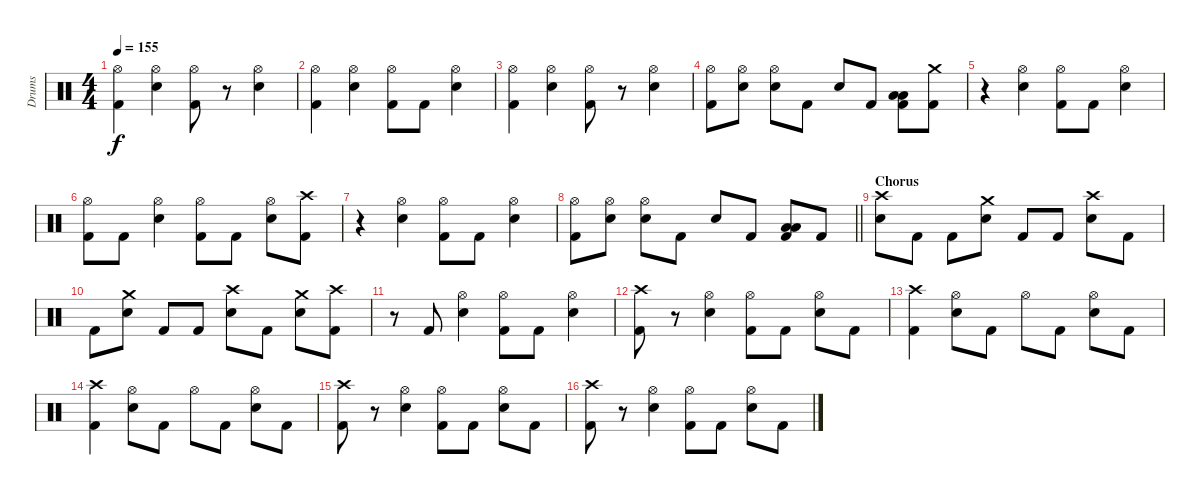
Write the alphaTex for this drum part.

\track ("Drums" "Drums") {instrument percussion}
\staff {score}
\articulation defaults
\ts (4 4)
\tempo 155
\clef neutral
\ks c
("Hi-Hat (open)" "Kick (hit) 2").4{dy f} ("Hi-Hat (open)" "Electric Snare (hit)").4 ("Hi-Hat (open)" "Kick (hit) 2").8 r.8 ("Hi-Hat (open)" "Electric Snare (hit)").4 |
("Hi-Hat (open)" "Kick (hit) 2").4 ("Hi-Hat (open)" "Electric Snare (hit)").4 ("Hi-Hat (open)" "Kick (hit) 2").8 "Kick (hit) 2".8 ("Hi-Hat (open)" "Electric Snare (hit)").4 |
("Hi-Hat (open)" "Kick (hit) 2").4 ("Hi-Hat (open)" "Electric Snare (hit)").4 ("Hi-Hat (open)" "Kick (hit) 2").8 r.8 ("Hi-Hat (open)" "Electric Snare (hit)").4 |
("Hi-Hat (open)" "Kick (hit) 2").8 ("Hi-Hat (open)" "Electric Snare (hit)").8 ("Hi-Hat (open)" "Electric Snare (hit)").8 "Kick (hit) 2".8 "Electric Snare (hit)".8 "Kick (hit) 2".8 ("Low Floor Tom (hit)" "Low Tom (hit)" "Kick (hit) 2").8 ("Crash medium (hit)" "Kick (hit) 2").8 |
r.4 ("Hi-Hat (open)" "Electric Snare (hit)").4 ("Hi-Hat (open)" "Kick (hit) 2").8 "Kick (hit) 2".8 ("Hi-Hat (open)" "Electric Snare (hit)").4 |
("Hi-Hat (open)" "Kick (hit) 2").8 "Kick (hit) 2".8 ("Hi-Hat (open)" "Electric Snare (hit)").4 ("Hi-Hat (open)" "Kick (hit) 2").8 "Kick (hit) 2".8 ("Hi-Hat (open)" "Electric Snare (hit)").8 ("Crash high (hit)" "Kick (hit) 2").8 |
r.4 ("Hi-Hat (open)" "Electric Snare (hit)").4 ("Hi-Hat (open)" "Kick (hit) 2").8 "Kick (hit) 2".8 ("Hi-Hat (open)" "Electric Snare (hit)").4 |
\barLineRight lightlight
("Hi-Hat (open)" "Kick (hit) 2").8 ("Hi-Hat (open)" "Electric Snare (hit)").8 ("Hi-Hat (open)" "Electric Snare (hit)").8 "Kick (hit) 2".8 "Electric Snare (hit)".8 "Kick (hit) 2".8 ("Low Floor Tom (hit)" "Low Tom (hit)" "Kick (hit) 2").8 "Kick (hit) 2".8 |
\section ("" "Chorus")
("Crash high (hit)" "Electric Snare (hit)").8 "Kick (hit) 2".8 "Kick (hit) 2".8 ("Crash medium (hit)" "Electric Snare (hit)").8 "Kick (hit) 2".8 "Kick (hit) 2".8 ("Crash high (hit)" "Electric Snare (hit)").8 "Kick (hit) 2".8 |
"Kick (hit) 2".8 ("Crash medium (hit)" "Electric Snare (hit)").8 "Kick (hit) 2".8 "Kick (hit) 2".8 ("Crash high (hit)" "Electric Snare (hit)").8 "Kick (hit) 2".8 ("Crash medium (hit)" "Electric Snare (hit)").8 ("Kick (hit) 2" "Crash high (hit)").8 |
r.8 "Kick (hit) 2".8 ("Hi-Hat (open)" "Electric Snare (hit)").4 ("Hi-Hat (open)" "Kick (hit) 2").8 "Kick (hit) 2".8 ("Hi-Hat (open)" "Electric Snare (hit)").4 |
("Crash high (hit)" "Kick (hit) 2").8 r.8 ("Hi-Hat (open)" "Electric Snare (hit)").4 ("Hi-Hat (open)" "Kick (hit) 2").8 "Kick (hit) 2".8 ("Hi-Hat (open)" "Electric Snare (hit)").8 "Kick (hit) 2".8 |
("Crash high (hit)" "Kick (hit) 2").4 ("Hi-Hat (open)" "Electric Snare (hit)").8 "Kick (hit) 2".8 "Hi-Hat (open)".8 "Kick (hit) 2".8 ("Hi-Hat (open)" "Electric Snare (hit)").8 "Kick (hit) 2".8 |
("Crash high (hit)" "Kick (hit) 2").4 ("Hi-Hat (open)" "Electric Snare (hit)").8 "Kick (hit) 2".8 "Hi-Hat (open)".8 "Kick (hit) 2".8 ("Hi-Hat (open)" "Electric Snare (hit)").8 "Kick (hit) 2".8 |
("Crash high (hit)" "Kick (hit) 2").8 r.8 ("Hi-Hat (open)" "Electric Snare (hit)").4 ("Hi-Hat (open)" "Kick (hit) 2").8 "Kick (hit) 2".8 ("Hi-Hat (open)" "Electric Snare (hit)").8 "Kick (hit) 2".8 |
("Crash high (hit)" "Kick (hit) 2").8 r.8 ("Hi-Hat (open)" "Electric Snare (hit)").4 ("Hi-Hat (open)" "Kick (hit) 2").8 "Kick (hit) 2".8 ("Hi-Hat (open)" "Electric Snare (hit)").8 "Kick (hit) 2".8
